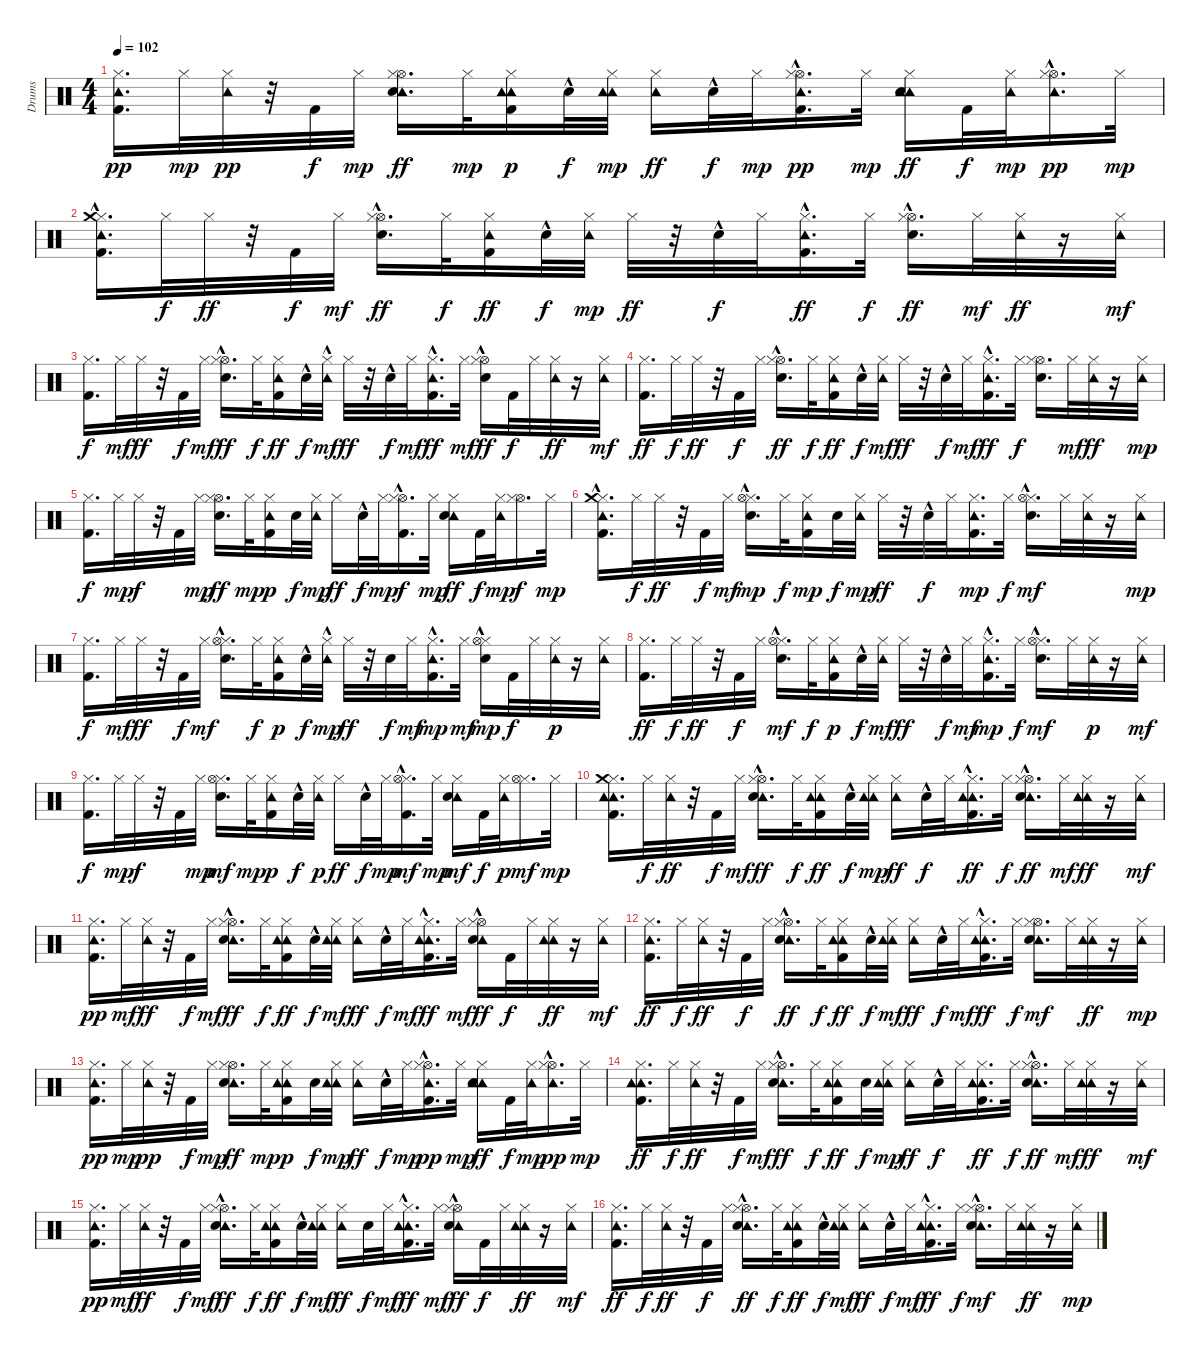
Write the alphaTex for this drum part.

\track ("Drums" "Drums") {instrument percussion}
\staff {score}
\articulation defaults
\ts (4 4)
\tempo 102
\clef neutral
\ks c
("Tambourine (hit)" "Kick (hit) 2" "Hi-Hat (closed)").16{d dy pp} "Hi-Hat (closed)".32{dy mp} ("Tambourine (hit)" "Hi-Hat (closed)").32{dy pp} r.32 "Kick (hit) 2".32{dy f} "Hi-Hat (closed)".32{dy mp} ("Tambourine (hit)" "Hi-Hat (open)" "Hi-Hat (closed)" "Electric Snare (hit)").16{d dy ff} "Hi-Hat (closed)".32{dy mp} ("Tambourine (hit)" "Kick (hit) 2" "Tambourine (hit)" "Hi-Hat (closed)").16{dy p} "Snare (hit) 2"{hac}.32{dy f} ("Tambourine (hit)" "Tambourine (hit)" "Hi-Hat (closed)").32{dy mp} ("Tambourine (hit)" "Hi-Hat (closed)").16{dy ff} "Snare (hit) 2"{hac}.32{dy f} "Hi-Hat (closed)".32{dy mp} ("Tambourine (hit)"{hac} "Kick (hit) 2"{hac} "Hi-Hat (open)"{hac} "Hi-Hat (closed)").16{d dy pp} "Hi-Hat (closed)".32{dy mp} ("Tambourine (hit)" "Tambourine (hit)" "Hi-Hat (closed)" "Electric Snare (hit)").16{dy ff} "Kick (hit) 2".32{dy f} ("Tambourine (hit)" "Hi-Hat (closed)").32{dy mp} ("Tambourine (hit)"{hac} "Hi-Hat (open)" "Hi-Hat (closed)").16{d dy pp} "Hi-Hat (closed)".32{dy mp} |
("Kick (hit) 2" "Tambourine (hit)" "Hi-Hat (closed)" "Crash medium (hit)"{hac}).16{d} "Hi-Hat (closed)".32{dy f} "Hi-Hat (closed)".32{dy ff} r.32 "Kick (hit) 2".32{dy f} "Hi-Hat (closed)".32{dy mf} ("Hi-Hat (open)"{hac} "Hi-Hat (closed)" "Electric Snare (hit)").16{d dy ff} "Hi-Hat (closed)".32{dy f} ("Kick (hit) 2" "Tambourine (hit)" "Hi-Hat (closed)").16{dy ff} "Snare (hit) 2"{hac}.32{dy f} ("Tambourine (hit)" "Hi-Hat (closed)").32{dy mp} "Hi-Hat (closed)".32{dy ff} r.32 "Snare (hit) 2"{hac}.32{dy f} "Hi-Hat (closed)".32 ("Kick (hit) 2"{hac} "Tambourine (hit)" "Hi-Hat (closed)").16{d dy ff} "Hi-Hat (closed)".32{dy f} ("Hi-Hat (open)"{hac} "Hi-Hat (closed)" "Electric Snare (hit)"{hac}).16{d dy ff} "Hi-Hat (closed)".32{dy mf} ("Tambourine (hit)" "Hi-Hat (closed)").32{dy ff} r.16 ("Tambourine (hit)" "Hi-Hat (closed)").32{dy mf} |
("Kick (hit) 2" "Hi-Hat (closed)").16{d dy f} "Hi-Hat (closed)".32{dy mf} "Hi-Hat (closed)".32{dy ff} r.32 "Kick (hit) 2".32{dy f} "Hi-Hat (closed)".32{dy mf} ("Hi-Hat (open)"{hac} "Hi-Hat (closed)" "Electric Snare (hit)").16{d dy ff} "Hi-Hat (closed)".32{dy f} ("Kick (hit) 2" "Tambourine (hit)" "Hi-Hat (closed)").16{dy ff} "Snare (hit) 2"{hac}.32{dy f} ("Tambourine (hit)"{hac} "Hi-Hat (closed)").32{dy mf} "Hi-Hat (closed)".32{dy ff} r.32 "Snare (hit) 2"{hac}.32{dy f} "Hi-Hat (closed)".32{dy mf} ("Kick (hit) 2"{hac} "Tambourine (hit)" "Hi-Hat (closed)").16{d dy ff} "Hi-Hat (closed)".32{dy mf} ("Hi-Hat (open)"{hac} "Hi-Hat (closed)" "Electric Snare (hit)").16{dy ff} "Kick (hit) 2".32{dy f} "Hi-Hat (closed)".32 ("Tambourine (hit)" "Hi-Hat (closed)").32{dy ff} r.16 ("Tambourine (hit)" "Hi-Hat (closed)").32{dy mf} |
("Kick (hit) 2" "Hi-Hat (closed)").16{d dy ff} "Hi-Hat (closed)".32{dy f} "Hi-Hat (closed)".32{dy ff} r.32 "Kick (hit) 2".32{dy f} "Hi-Hat (closed)".32 ("Hi-Hat (open)"{hac} "Hi-Hat (closed)" "Electric Snare (hit)").16{d dy ff} "Hi-Hat (closed)".32{dy f} ("Kick (hit) 2" "Tambourine (hit)" "Hi-Hat (closed)").16{dy ff} "Snare (hit) 2"{hac}.32{dy f} ("Tambourine (hit)" "Hi-Hat (closed)").32{dy mf} "Hi-Hat (closed)".32{dy ff} r.32 "Snare (hit) 2"{hac}.32{dy f} "Hi-Hat (closed)".32{dy mf} ("Kick (hit) 2"{hac} "Tambourine (hit)" "Hi-Hat (closed)").16{d dy ff} "Hi-Hat (closed)".32{dy f} ("Hi-Hat (open)" "Hi-Hat (closed)" "Electric Snare (hit)").16{d} "Hi-Hat (closed)".32{dy mf} ("Tambourine (hit)" "Hi-Hat (closed)").32{dy ff} r.16 ("Tambourine (hit)" "Hi-Hat (closed)").32{dy mp} |
("Kick (hit) 2" "Hi-Hat (closed)").16{d dy f} "Hi-Hat (closed)".32{dy mp} "Hi-Hat (closed)".32{dy f} r.32 "Kick (hit) 2".32 "Hi-Hat (closed)".32{dy mp} ("Hi-Hat (open)" "Hi-Hat (closed)" "Electric Snare (hit)").16{d dy ff} "Hi-Hat (closed)".32{dy mp} ("Kick (hit) 2" "Tambourine (hit)" "Hi-Hat (closed)").16{dy p} "Snare (hit) 2".32{dy f} ("Tambourine (hit)" "Hi-Hat (closed)").32{dy mp} "Hi-Hat (closed)".16{dy ff} "Snare (hit) 2"{hac}.32{dy f} "Hi-Hat (closed)".32{dy mp} ("Kick (hit) 2"{hac} "Hi-Hat (open)"{hac} "Hi-Hat (closed)").16{d dy f} "Hi-Hat (closed)".32{dy mp} ("Tambourine (hit)" "Hi-Hat (closed)" "Electric Snare (hit)").16{dy ff} "Kick (hit) 2".32{dy f} ("Tambourine (hit)" "Hi-Hat (closed)").32{dy mp} ("Hi-Hat (open)" "Hi-Hat (closed)").16{d dy f} "Hi-Hat (closed)".32{dy mp} |
("Hi-Hat (closed)" "Kick (hit) 2" "Tambourine (hit)" "Crash medium (hit)"{hac}).16{d} "Hi-Hat (closed)".32{dy f} "Hi-Hat (closed)".32{dy ff} r.32 "Kick (hit) 2".32{dy f} "Hi-Hat (closed)".32{dy mf} ("Hi-Hat (closed)" "Electric Snare (hit)" "Hi-Hat (open)"{hac}).16{d dy mp} "Hi-Hat (closed)".32{dy f} ("Hi-Hat (closed)" "Kick (hit) 2" "Tambourine (hit)").16{dy mp} "Snare (hit) 2".32{dy f} ("Hi-Hat (closed)" "Tambourine (hit)").32{dy mp} "Hi-Hat (closed)".32{dy ff} r.32 "Snare (hit) 2"{hac}.32{dy f} "Hi-Hat (closed)".32 ("Hi-Hat (closed)" "Kick (hit) 2" "Tambourine (hit)").16{d dy mp} "Hi-Hat (closed)".32{dy f} ("Hi-Hat (closed)" "Electric Snare (hit)"{hac} "Hi-Hat (open)"{hac}).16{d dy mf} "Hi-Hat (closed)".32 ("Hi-Hat (closed)" "Tambourine (hit)").32 r.16 ("Hi-Hat (closed)" "Tambourine (hit)").32{dy mp} |
("Hi-Hat (closed)" "Kick (hit) 2").16{d dy f} "Hi-Hat (closed)".32{dy mf} "Hi-Hat (closed)".32{dy ff} r.32 "Kick (hit) 2".32{dy f} "Hi-Hat (closed)".32{dy mf} ("Hi-Hat (closed)" "Electric Snare (hit)" "Hi-Hat (open)"{hac}).16{d} "Hi-Hat (closed)".32{dy f} ("Hi-Hat (closed)" "Kick (hit) 2" "Tambourine (hit)").16{dy p} "Snare (hit) 2"{hac}.32{dy f} ("Hi-Hat (closed)" "Tambourine (hit)"{hac}).32{dy mp} "Hi-Hat (closed)".32{dy ff} r.32 "Snare (hit) 2".32{dy f} "Hi-Hat (closed)".32{dy mf} ("Hi-Hat (closed)" "Kick (hit) 2"{hac} "Tambourine (hit)").16{d dy mp} "Hi-Hat (closed)".32{dy mf} ("Hi-Hat (closed)" "Electric Snare (hit)" "Hi-Hat (open)"{hac}).16{dy mp} "Kick (hit) 2".32{dy f} "Hi-Hat (closed)".32 ("Hi-Hat (closed)" "Tambourine (hit)").32{dy p} r.16 ("Hi-Hat (closed)" "Tambourine (hit)").32 |
("Hi-Hat (closed)" "Kick (hit) 2").16{d dy ff} "Hi-Hat (closed)".32{dy f} "Hi-Hat (closed)".32{dy ff} r.32 "Kick (hit) 2".32{dy f} "Hi-Hat (closed)".32 ("Hi-Hat (closed)" "Electric Snare (hit)" "Hi-Hat (open)"{hac}).16{d dy mf} "Hi-Hat (closed)".32{dy f} ("Hi-Hat (closed)" "Kick (hit) 2" "Tambourine (hit)").16{dy p} "Snare (hit) 2"{hac}.32{dy f} ("Hi-Hat (closed)" "Tambourine (hit)").32{dy mf} "Hi-Hat (closed)".32{dy ff} r.32 "Snare (hit) 2"{hac}.32{dy f} "Hi-Hat (closed)".32{dy mf} ("Hi-Hat (closed)" "Kick (hit) 2"{hac} "Tambourine (hit)").16{d dy mp} "Hi-Hat (closed)".32{dy f} ("Hi-Hat (closed)" "Electric Snare (hit)"{hac} "Hi-Hat (open)").16{d dy mf} "Hi-Hat (closed)".32 ("Hi-Hat (closed)" "Tambourine (hit)").32{dy p} r.16 ("Hi-Hat (closed)" "Tambourine (hit)").32{dy mf} |
("Hi-Hat (closed)" "Kick (hit) 2").16{d dy f} "Hi-Hat (closed)".32{dy mp} "Hi-Hat (closed)".32{dy f} r.32 "Kick (hit) 2".32 "Hi-Hat (closed)".32{dy mp} ("Hi-Hat (closed)" "Electric Snare (hit)" "Hi-Hat (open)").16{d dy mf} "Hi-Hat (closed)".32{dy mp} ("Hi-Hat (closed)" "Kick (hit) 2" "Tambourine (hit)").16{dy p} "Snare (hit) 2"{hac}.32{dy f} ("Hi-Hat (closed)" "Tambourine (hit)").32{dy p} "Hi-Hat (closed)".16{dy ff} "Snare (hit) 2"{hac}.32{dy f} "Hi-Hat (closed)".32{dy mp} ("Hi-Hat (closed)" "Kick (hit) 2"{hac} "Hi-Hat (open)"{hac}).16{d dy mf} "Hi-Hat (closed)".32{dy mp} ("Hi-Hat (closed)" "Tambourine (hit)" "Electric Snare (hit)").16{dy mf} "Kick (hit) 2".32{dy f} ("Hi-Hat (closed)" "Tambourine (hit)").32{dy p} ("Hi-Hat (closed)" "Hi-Hat (open)").16{d dy mf} "Hi-Hat (closed)".32{dy mp} |
("Tambourine (hit)" "Kick (hit) 2" "Tambourine (hit)" "Hi-Hat (closed)" "Crash medium (hit)").16{d} "Hi-Hat (closed)".32{dy f} ("Tambourine (hit)" "Hi-Hat (closed)").32{dy ff} r.32 "Kick (hit) 2".32{dy f} "Hi-Hat (closed)".32{dy mf} ("Tambourine (hit)" "Hi-Hat (open)"{hac} "Hi-Hat (closed)" "Electric Snare (hit)").16{d dy ff} "Hi-Hat (closed)".32{dy f} ("Tambourine (hit)" "Tambourine (hit)" "Hi-Hat (closed)" "Kick (hit) 2").16{dy ff} "Snare (hit) 2"{hac}.32{dy f} ("Tambourine (hit)" "Tambourine (hit)" "Hi-Hat (closed)").32{dy mp} ("Tambourine (hit)" "Hi-Hat (closed)").16{dy ff} "Snare (hit) 2"{hac}.32{dy f} "Hi-Hat (closed)".32 ("Tambourine (hit)" "Tambourine (hit)" "Hi-Hat (closed)" "Kick (hit) 2"{hac}).16{d dy ff} "Hi-Hat (closed)".32{dy f} ("Tambourine (hit)" "Hi-Hat (open)"{hac} "Hi-Hat (closed)" "Electric Snare (hit)"{hac}).16{d dy ff} "Hi-Hat (closed)".32{dy mf} ("Tambourine (hit)" "Tambourine (hit)" "Hi-Hat (closed)").32{dy ff} r.16 ("Tambourine (hit)" "Hi-Hat (closed)").32{dy mf} |
("Tambourine (hit)" "Hi-Hat (closed)" "Kick (hit) 2").16{d dy pp} "Hi-Hat (closed)".32{dy mf} ("Tambourine (hit)" "Hi-Hat (closed)").32{dy ff} r.32 "Kick (hit) 2".32{dy f} "Hi-Hat (closed)".32{dy mf} ("Tambourine (hit)" "Hi-Hat (open)"{hac} "Hi-Hat (closed)" "Electric Snare (hit)").16{d dy ff} "Hi-Hat (closed)".32{dy f} ("Tambourine (hit)" "Tambourine (hit)" "Hi-Hat (closed)" "Kick (hit) 2").16{dy ff} "Snare (hit) 2"{hac}.32{dy f} ("Tambourine (hit)" "Tambourine (hit)" "Hi-Hat (closed)").32{dy mf} ("Tambourine (hit)" "Hi-Hat (closed)").16{dy ff} "Snare (hit) 2"{hac}.32{dy f} "Hi-Hat (closed)".32{dy mf} ("Tambourine (hit)" "Tambourine (hit)" "Hi-Hat (closed)" "Kick (hit) 2"{hac}).16{d dy ff} "Hi-Hat (closed)".32{dy mf} ("Tambourine (hit)" "Hi-Hat (open)"{hac} "Hi-Hat (closed)" "Electric Snare (hit)").16{dy ff} "Kick (hit) 2".32{dy f} "Hi-Hat (closed)".32 ("Tambourine (hit)" "Tambourine (hit)" "Hi-Hat (closed)").32{dy ff} r.16 ("Tambourine (hit)" "Hi-Hat (closed)").32{dy mf} |
("Tambourine (hit)" "Hi-Hat (closed)" "Kick (hit) 2").16{d dy ff} "Hi-Hat (closed)".32{dy f} ("Tambourine (hit)" "Hi-Hat (closed)").32{dy ff} r.32 "Kick (hit) 2".32{dy f} "Hi-Hat (closed)".32 ("Tambourine (hit)" "Hi-Hat (open)"{hac} "Hi-Hat (closed)" "Electric Snare (hit)").16{d dy ff} "Hi-Hat (closed)".32{dy f} ("Tambourine (hit)" "Tambourine (hit)" "Hi-Hat (closed)" "Kick (hit) 2").16{dy ff} "Snare (hit) 2"{hac}.32{dy f} ("Tambourine (hit)" "Tambourine (hit)" "Hi-Hat (closed)").32{dy mf} ("Tambourine (hit)" "Hi-Hat (closed)").16{dy ff} "Snare (hit) 2"{hac}.32{dy f} "Hi-Hat (closed)".32{dy mf} ("Tambourine (hit)" "Tambourine (hit)" "Hi-Hat (closed)" "Kick (hit) 2"{hac}).16{d dy ff} "Hi-Hat (closed)".32{dy f} ("Tambourine (hit)" "Hi-Hat (open)" "Hi-Hat (closed)" "Electric Snare (hit)").16{d dy mf} "Hi-Hat (closed)".32 ("Tambourine (hit)" "Tambourine (hit)" "Hi-Hat (closed)").32{dy ff} r.16 ("Tambourine (hit)" "Hi-Hat (closed)").32{dy mp} |
("Tambourine (hit)" "Hi-Hat (closed)" "Kick (hit) 2").16{d dy pp} "Hi-Hat (closed)".32{dy mp} ("Tambourine (hit)" "Hi-Hat (closed)").32{dy pp} r.32 "Kick (hit) 2".32{dy f} "Hi-Hat (closed)".32{dy mp} ("Tambourine (hit)" "Hi-Hat (open)" "Hi-Hat (closed)" "Electric Snare (hit)").16{d dy ff} "Hi-Hat (closed)".32{dy mp} ("Tambourine (hit)" "Tambourine (hit)" "Hi-Hat (closed)" "Kick (hit) 2").16{dy p} "Snare (hit) 2".32{dy f} ("Tambourine (hit)" "Tambourine (hit)" "Hi-Hat (closed)").32{dy mp} ("Tambourine (hit)" "Hi-Hat (closed)").16{dy ff} "Snare (hit) 2"{hac}.32{dy f} "Hi-Hat (closed)".32{dy mp} ("Tambourine (hit)"{hac} "Hi-Hat (open)"{hac} "Hi-Hat (closed)" "Kick (hit) 2"{hac}).16{d dy pp} "Hi-Hat (closed)".32{dy mp} ("Tambourine (hit)" "Tambourine (hit)" "Hi-Hat (closed)" "Electric Snare (hit)").16{dy ff} "Kick (hit) 2".32{dy f} ("Tambourine (hit)" "Hi-Hat (closed)").32{dy mp} ("Tambourine (hit)"{hac} "Hi-Hat (open)" "Hi-Hat (closed)").16{d dy pp} "Hi-Hat (closed)".32{dy mp} |
("Tambourine (hit)" "Tambourine (hit)" "Hi-Hat (closed)" "Kick (hit) 2").16{d dy ff} "Hi-Hat (closed)".32{dy f} ("Tambourine (hit)" "Hi-Hat (closed)").32{dy ff} r.32 "Kick (hit) 2".32{dy f} "Hi-Hat (closed)".32{dy mf} ("Tambourine (hit)" "Hi-Hat (open)"{hac} "Hi-Hat (closed)" "Electric Snare (hit)").16{d dy ff} "Hi-Hat (closed)".32{dy f} ("Tambourine (hit)" "Tambourine (hit)" "Hi-Hat (closed)" "Kick (hit) 2").16{dy ff} "Snare (hit) 2".32{dy f} ("Tambourine (hit)" "Tambourine (hit)" "Hi-Hat (closed)").32{dy mp} ("Tambourine (hit)" "Hi-Hat (closed)").16{dy ff} "Snare (hit) 2"{hac}.32{dy f} "Hi-Hat (closed)".32 ("Tambourine (hit)" "Tambourine (hit)" "Hi-Hat (closed)" "Kick (hit) 2").16{d dy ff} "Hi-Hat (closed)".32{dy f} ("Tambourine (hit)" "Hi-Hat (open)"{hac} "Hi-Hat (closed)" "Electric Snare (hit)"{hac}).16{d dy ff} "Hi-Hat (closed)".32{dy mf} ("Tambourine (hit)" "Tambourine (hit)" "Hi-Hat (closed)").32{dy ff} r.16 ("Tambourine (hit)" "Hi-Hat (closed)").32{dy mf} |
("Tambourine (hit)" "Hi-Hat (closed)" "Kick (hit) 2").16{d dy pp} "Hi-Hat (closed)".32{dy mf} ("Tambourine (hit)" "Hi-Hat (closed)").32{dy ff} r.32 "Kick (hit) 2".32{dy f} "Hi-Hat (closed)".32{dy mf} ("Tambourine (hit)" "Hi-Hat (open)"{hac} "Hi-Hat (closed)" "Electric Snare (hit)").16{d dy ff} "Hi-Hat (closed)".32{dy f} ("Tambourine (hit)" "Tambourine (hit)" "Hi-Hat (closed)" "Kick (hit) 2").16{dy ff} "Snare (hit) 2"{hac}.32{dy f} ("Tambourine (hit)" "Tambourine (hit)" "Hi-Hat (closed)").32{dy mf} ("Tambourine (hit)" "Hi-Hat (closed)").16{dy ff} "Snare (hit) 2".32{dy f} "Hi-Hat (closed)".32{dy mf} ("Tambourine (hit)" "Tambourine (hit)" "Hi-Hat (closed)" "Kick (hit) 2"{hac}).16{d dy ff} "Hi-Hat (closed)".32{dy mf} ("Tambourine (hit)" "Hi-Hat (open)"{hac} "Hi-Hat (closed)" "Electric Snare (hit)").16{dy ff} "Kick (hit) 2".32{dy f} "Hi-Hat (closed)".32 ("Tambourine (hit)" "Tambourine (hit)" "Hi-Hat (closed)").32{dy ff} r.16 ("Tambourine (hit)" "Hi-Hat (closed)").32{dy mf} |
("Tambourine (hit)" "Hi-Hat (closed)" "Kick (hit) 2").16{d dy ff} "Hi-Hat (closed)".32{dy f} ("Tambourine (hit)" "Hi-Hat (closed)").32{dy ff} r.32 "Kick (hit) 2".32{dy f} "Hi-Hat (closed)".32 ("Tambourine (hit)" "Hi-Hat (open)"{hac} "Hi-Hat (closed)" "Electric Snare (hit)").16{d dy ff} "Hi-Hat (closed)".32{dy f} ("Tambourine (hit)" "Tambourine (hit)" "Hi-Hat (closed)" "Kick (hit) 2").16{dy ff} "Snare (hit) 2"{hac}.32{dy f} ("Tambourine (hit)" "Tambourine (hit)" "Hi-Hat (closed)").32{dy mf} ("Tambourine (hit)" "Hi-Hat (closed)").16{dy ff} "Snare (hit) 2"{hac}.32{dy f} "Hi-Hat (closed)".32{dy mf} ("Tambourine (hit)" "Tambourine (hit)" "Hi-Hat (closed)" "Kick (hit) 2"{hac}).16{d dy ff} "Hi-Hat (closed)".32{dy f} ("Tambourine (hit)" "Hi-Hat (open)" "Hi-Hat (closed)" "Electric Snare (hit)"{hac}).16{d dy mf} "Hi-Hat (closed)".32 ("Tambourine (hit)" "Tambourine (hit)" "Hi-Hat (closed)").32{dy ff} r.16 ("Tambourine (hit)" "Hi-Hat (closed)").32{dy mp}
